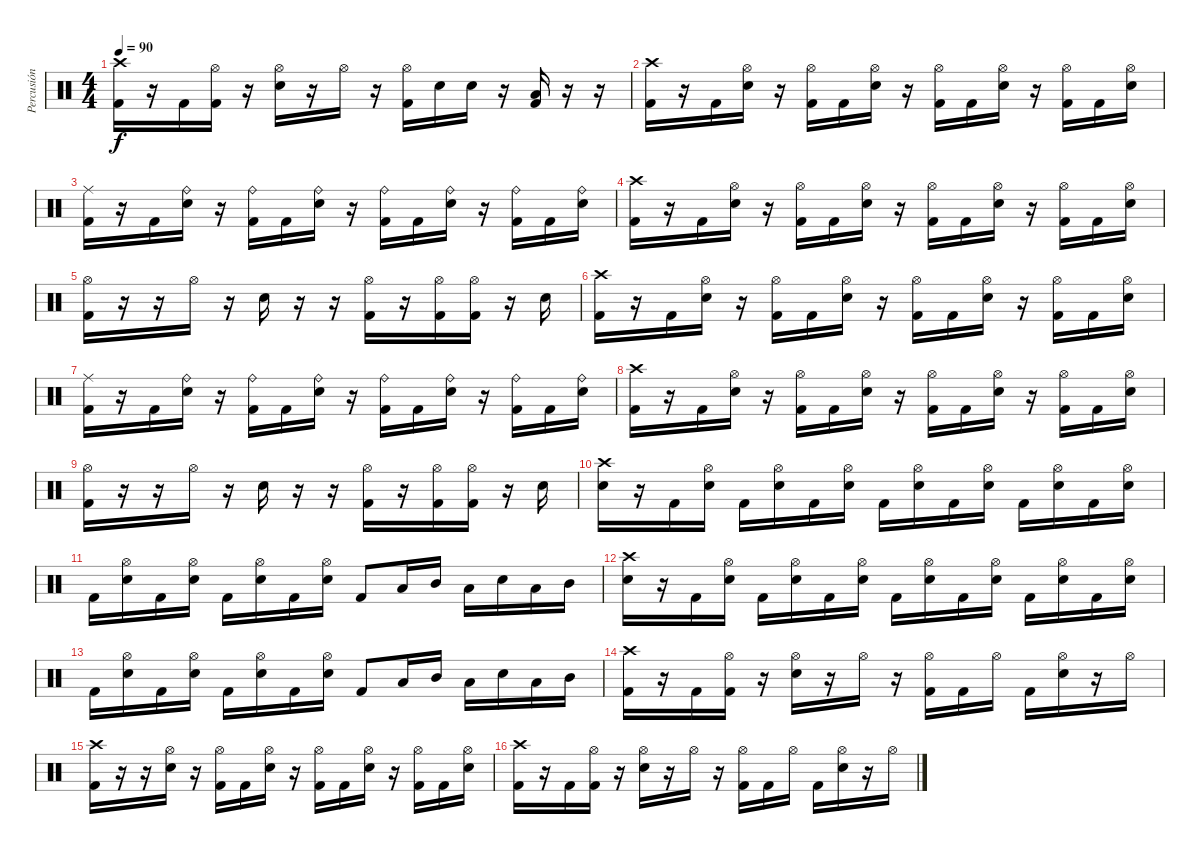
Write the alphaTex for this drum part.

\track ("Percusión" "Percusión") {instrument percussion}
\staff {score}
\articulation defaults
\ts (4 4)
\tempo 90
\clef neutral
\ks c
("Crash high (hit)" "Kick (hit) 2").16{dy f} r.16 "Kick (hit) 2".16 ("Hi-Hat (open)" "Kick (hit) 2").16 r.16 ("Hi-Hat (open)" "Electric Snare (hit)").16 r.16 "Hi-Hat (open)".16 r.16 ("Hi-Hat (open)" "Kick (hit) 2").16 "Electric Snare (hit)".16 "Electric Snare (hit)".16 r.16 ("Low Tom (hit)" "Kick (hit) 2").16 r.16 r.16 |
("Crash high (hit)" "Kick (hit) 2").16 r.16 "Kick (hit) 2".16 ("Hi-Hat (open)" "Electric Snare (hit)").16 r.16 ("Hi-Hat (open)" "Kick (hit) 2").16 "Kick (hit) 2".16 ("Hi-Hat (open)" "Electric Snare (hit)").16 r.16 ("Hi-Hat (open)" "Kick (hit) 2").16 "Kick (hit) 2".16 ("Hi-Hat (open)" "Electric Snare (hit)").16 r.16 ("Hi-Hat (open)" "Kick (hit) 2").16 "Kick (hit) 2".16 ("Hi-Hat (open)" "Electric Snare (hit)").16 |
("Ride (middle)" "Kick (hit) 2").16 r.16 "Kick (hit) 2".16 ("Ride (bell)" "Electric Snare (hit)").16 r.16 ("Ride (bell)" "Kick (hit) 2").16 "Kick (hit) 2".16 ("Ride (bell)" "Electric Snare (hit)").16 r.16 ("Ride (bell)" "Kick (hit) 2").16 "Kick (hit) 2".16 ("Ride (bell)" "Electric Snare (hit)").16 r.16 ("Ride (bell)" "Kick (hit) 2").16 "Kick (hit) 2".16 ("Ride (bell)" "Electric Snare (hit)").16 |
("Crash high (hit)" "Kick (hit) 2").16 r.16 "Kick (hit) 2".16 ("Hi-Hat (open)" "Electric Snare (hit)").16 r.16 ("Hi-Hat (open)" "Kick (hit) 2").16 "Kick (hit) 2".16 ("Hi-Hat (open)" "Electric Snare (hit)").16 r.16 ("Hi-Hat (open)" "Kick (hit) 2").16 "Kick (hit) 2".16 ("Hi-Hat (open)" "Electric Snare (hit)").16 r.16 ("Hi-Hat (open)" "Kick (hit) 2").16 "Kick (hit) 2".16 ("Hi-Hat (open)" "Electric Snare (hit)").16 |
("Hi-Hat (open)" "Kick (hit) 2").16 r.16 r.16 "Hi-Hat (open)".16 r.16 "Electric Snare (hit)".16 r.16 r.16 ("Hi-Hat (open)" "Kick (hit) 2").16 r.16 ("Hi-Hat (open)" "Kick (hit) 2").16 ("Hi-Hat (open)" "Kick (hit) 2").16 r.16 "Electric Snare (hit)".16 |
("Crash high (hit)" "Kick (hit) 2").16 r.16 "Kick (hit) 2".16 ("Hi-Hat (open)" "Electric Snare (hit)").16 r.16 ("Hi-Hat (open)" "Kick (hit) 2").16 "Kick (hit) 2".16 ("Hi-Hat (open)" "Electric Snare (hit)").16 r.16 ("Hi-Hat (open)" "Kick (hit) 2").16 "Kick (hit) 2".16 ("Hi-Hat (open)" "Electric Snare (hit)").16 r.16 ("Hi-Hat (open)" "Kick (hit) 2").16 "Kick (hit) 2".16 ("Hi-Hat (open)" "Electric Snare (hit)").16 |
("Ride (middle)" "Kick (hit) 2").16 r.16 "Kick (hit) 2".16 ("Ride (bell)" "Electric Snare (hit)").16 r.16 ("Ride (bell)" "Kick (hit) 2").16 "Kick (hit) 2".16 ("Ride (bell)" "Electric Snare (hit)").16 r.16 ("Ride (bell)" "Kick (hit) 2").16 "Kick (hit) 2".16 ("Ride (bell)" "Electric Snare (hit)").16 r.16 ("Ride (bell)" "Kick (hit) 2").16 "Kick (hit) 2".16 ("Ride (bell)" "Electric Snare (hit)").16 |
("Crash high (hit)" "Kick (hit) 2").16 r.16 "Kick (hit) 2".16 ("Hi-Hat (open)" "Electric Snare (hit)").16 r.16 ("Hi-Hat (open)" "Kick (hit) 2").16 "Kick (hit) 2".16 ("Hi-Hat (open)" "Electric Snare (hit)").16 r.16 ("Hi-Hat (open)" "Kick (hit) 2").16 "Kick (hit) 2".16 ("Hi-Hat (open)" "Electric Snare (hit)").16 r.16 ("Hi-Hat (open)" "Kick (hit) 2").16 "Kick (hit) 2".16 ("Hi-Hat (open)" "Electric Snare (hit)").16 |
("Hi-Hat (open)" "Kick (hit) 2").16 r.16 r.16 "Hi-Hat (open)".16 r.16 "Electric Snare (hit)".16 r.16 r.16 ("Hi-Hat (open)" "Kick (hit) 2").16 r.16 ("Hi-Hat (open)" "Kick (hit) 2").16 ("Hi-Hat (open)" "Kick (hit) 2").16 r.16 "Electric Snare (hit)".16 |
("Crash high (hit)" "Electric Snare (hit)").16 r.16 "Kick (hit) 2".16 ("Hi-Hat (open)" "Electric Snare (hit)").16 "Kick (hit) 2".16 ("Hi-Hat (open)" "Electric Snare (hit)").16 "Kick (hit) 2".16 ("Hi-Hat (open)" "Electric Snare (hit)").16 "Kick (hit) 2".16 ("Hi-Hat (open)" "Electric Snare (hit)").16 "Kick (hit) 2".16 ("Hi-Hat (open)" "Electric Snare (hit)").16 "Kick (hit) 2".16 ("Hi-Hat (open)" "Electric Snare (hit)").16 "Kick (hit) 2".16 ("Hi-Hat (open)" "Electric Snare (hit)").16 |
"Kick (hit) 2".16 ("Hi-Hat (open)" "Electric Snare (hit)").16 "Kick (hit) 2".16 ("Hi-Hat (open)" "Electric Snare (hit)").16 "Kick (hit) 2".16 ("Hi-Hat (open)" "Electric Snare (hit)").16 "Kick (hit) 2".16 ("Hi-Hat (open)" "Electric Snare (hit)").16 "Kick (hit) 2".8 "Low Tom (hit)".16 "Mid Tom (hit)".16 "Low Tom (hit)".16 "Electric Snare (hit)".16 "Low Tom (hit)".16 "Mid Tom (hit)".16 |
("Crash high (hit)" "Electric Snare (hit)").16 r.16 "Kick (hit) 2".16 ("Hi-Hat (open)" "Electric Snare (hit)").16 "Kick (hit) 2".16 ("Hi-Hat (open)" "Electric Snare (hit)").16 "Kick (hit) 2".16 ("Hi-Hat (open)" "Electric Snare (hit)").16 "Kick (hit) 2".16 ("Hi-Hat (open)" "Electric Snare (hit)").16 "Kick (hit) 2".16 ("Hi-Hat (open)" "Electric Snare (hit)").16 "Kick (hit) 2".16 ("Hi-Hat (open)" "Electric Snare (hit)").16 "Kick (hit) 2".16 ("Hi-Hat (open)" "Electric Snare (hit)").16 |
"Kick (hit) 2".16 ("Hi-Hat (open)" "Electric Snare (hit)").16 "Kick (hit) 2".16 ("Hi-Hat (open)" "Electric Snare (hit)").16 "Kick (hit) 2".16 ("Hi-Hat (open)" "Electric Snare (hit)").16 "Kick (hit) 2".16 ("Hi-Hat (open)" "Electric Snare (hit)").16 "Kick (hit) 2".8 "Low Tom (hit)".16 "Mid Tom (hit)".16 "Low Tom (hit)".16 "Electric Snare (hit)".16 "Low Tom (hit)".16 "Mid Tom (hit)".16 |
("Crash high (hit)" "Kick (hit) 2").16 r.16 "Kick (hit) 2".16 ("Hi-Hat (open)" "Kick (hit) 2").16 r.16 ("Hi-Hat (open)" "Electric Snare (hit)").16 r.16 "Hi-Hat (open)".16 r.16 ("Hi-Hat (open)" "Kick (hit) 2").16 "Kick (hit) 2".16 "Hi-Hat (open)".16 "Kick (hit) 2".16 ("Hi-Hat (open)" "Electric Snare (hit)").16 r.16 "Hi-Hat (open)".16 |
("Crash high (hit)" "Kick (hit) 2").16 r.16 r.16 ("Hi-Hat (open)" "Electric Snare (hit)").16 r.16 ("Hi-Hat (open)" "Kick (hit) 2").16 "Kick (hit) 2".16 ("Hi-Hat (open)" "Electric Snare (hit)").16 r.16 ("Hi-Hat (open)" "Kick (hit) 2").16 "Kick (hit) 2".16 ("Hi-Hat (open)" "Electric Snare (hit)").16 r.16 ("Hi-Hat (open)" "Kick (hit) 2").16 "Kick (hit) 2".16 ("Hi-Hat (open)" "Electric Snare (hit)").16 |
("Crash high (hit)" "Kick (hit) 2").16 r.16 "Kick (hit) 2".16 ("Hi-Hat (open)" "Kick (hit) 2").16 r.16 ("Hi-Hat (open)" "Electric Snare (hit)").16 r.16 "Hi-Hat (open)".16 r.16 ("Hi-Hat (open)" "Kick (hit) 2").16 "Kick (hit) 2".16 "Hi-Hat (open)".16 "Kick (hit) 2".16 ("Hi-Hat (open)" "Electric Snare (hit)").16 r.16 "Hi-Hat (open)".16
